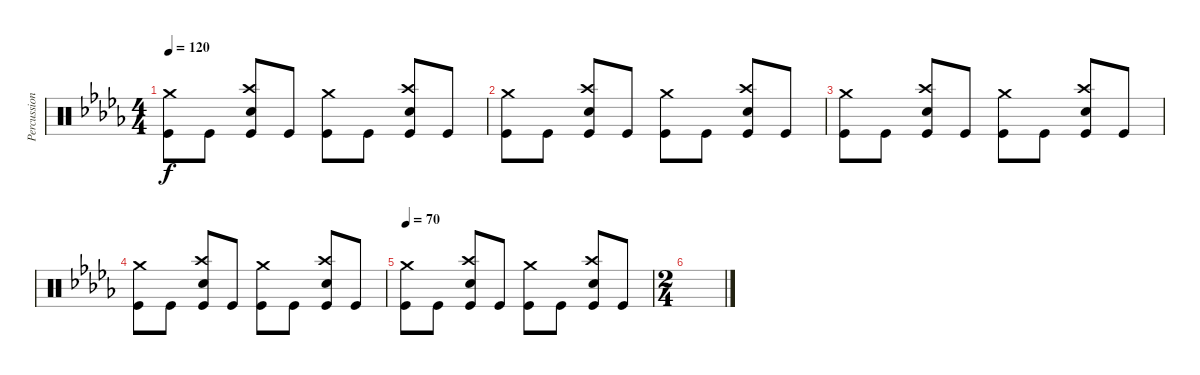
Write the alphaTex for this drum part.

\track ("Percussion" "Percussion") {instrument percussion}
\staff {score}
\articulation defaults
\ts (4 4)
\tempo 120
\clef neutral
\ks bbminor
("Crash medium (hit)" "Kick (hit)").8{dy f} "Kick (hit)".8 ("Crash high (hit)" "Snare (hit) 2" "Kick (hit)").8 "Kick (hit)".8 ("Crash medium (hit)" "Kick (hit)").8 "Kick (hit)".8 ("Crash high (hit)" "Snare (hit) 2" "Kick (hit)").8 "Kick (hit)".8 |
("Crash medium (hit)" "Kick (hit)").8 "Kick (hit)".8 ("Crash high (hit)" "Snare (hit) 2" "Kick (hit)").8 "Kick (hit)".8 ("Crash medium (hit)" "Kick (hit)").8 "Kick (hit)".8 ("Crash high (hit)" "Snare (hit) 2" "Kick (hit)").8 "Kick (hit)".8 |
("Crash medium (hit)" "Kick (hit)").8 "Kick (hit)".8 ("Crash high (hit)" "Snare (hit) 2" "Kick (hit)").8 "Kick (hit)".8 ("Crash medium (hit)" "Kick (hit)").8 "Kick (hit)".8 ("Crash high (hit)" "Snare (hit) 2" "Kick (hit)").8 "Kick (hit)".8 |
("Crash medium (hit)" "Kick (hit)").8 "Kick (hit)".8 ("Crash high (hit)" "Snare (hit) 2" "Kick (hit)").8 "Kick (hit)".8 ("Crash medium (hit)" "Kick (hit)").8 "Kick (hit)".8 ("Crash high (hit)" "Snare (hit) 2" "Kick (hit)").8 "Kick (hit)".8 |
\tempo 70
("Crash medium (hit)" "Kick (hit)").8 "Kick (hit)".8 ("Crash high (hit)" "Snare (hit) 2" "Kick (hit)").8 "Kick (hit)".8 ("Crash medium (hit)" "Kick (hit)").8 "Kick (hit)".8 ("Crash high (hit)" "Snare (hit) 2" "Kick (hit)").8 "Kick (hit)".8 |
\ts (2 4)
